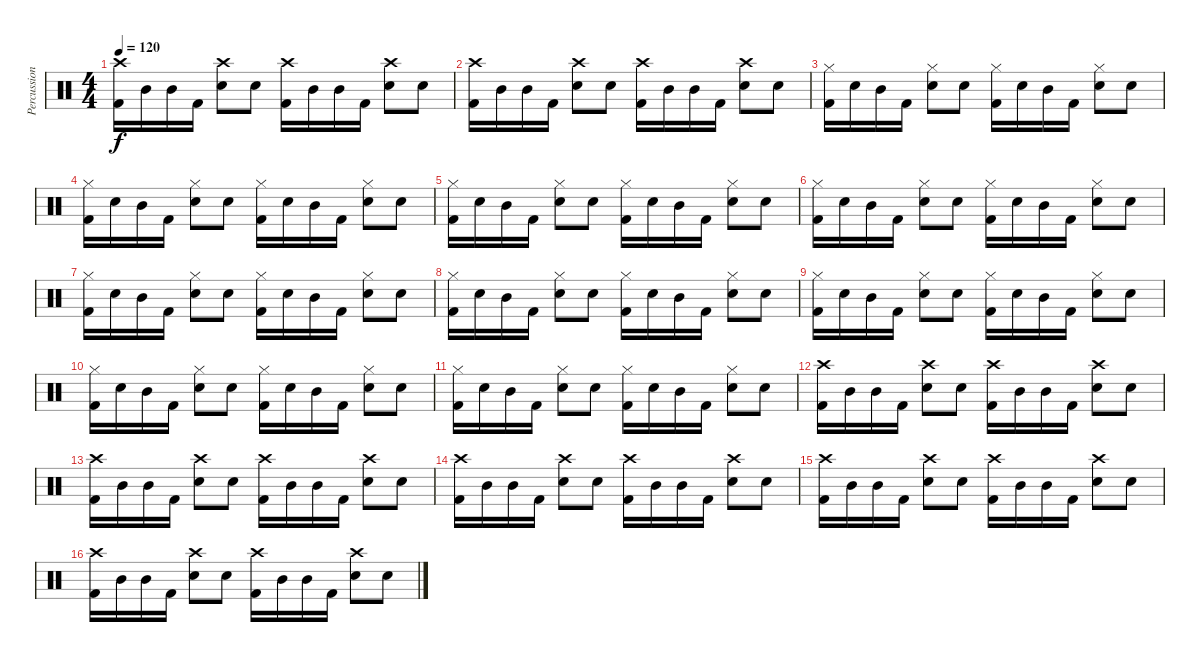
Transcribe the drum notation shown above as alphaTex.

\track ("Percussions" "Percussion") {instrument percussion}
\staff {score}
\articulation defaults
\ts (4 4)
\tempo 120
\clef neutral
\ks c
("Kick (hit) 2" "Crash high (hit)").16{dy f} "Mid Tom (hit)".16 "Mid Tom (hit)".16 "Kick (hit) 2".16 ("Electric Snare (hit)" "Crash high (hit)").8 "Electric Snare (hit)".8 ("Kick (hit) 2" "Crash high (hit)").16 "Mid Tom (hit)".16 "Mid Tom (hit)".16 "Kick (hit) 2".16 ("Electric Snare (hit)" "Crash high (hit)").8 "Electric Snare (hit)".8 |
("Kick (hit) 2" "Crash high (hit)").16 "Mid Tom (hit)".16 "Mid Tom (hit)".16 "Kick (hit) 2".16 ("Electric Snare (hit)" "Crash high (hit)").8 "Electric Snare (hit)".8 ("Kick (hit) 2" "Crash high (hit)").16 "Mid Tom (hit)".16 "Mid Tom (hit)".16 "Kick (hit) 2".16 ("Electric Snare (hit)" "Crash high (hit)").8 "Electric Snare (hit)".8 |
("Kick (hit) 2" "Hi-Hat (closed)").16 "Electric Snare (hit)".16 "Mid Tom (hit)".16 "Kick (hit) 2".16 ("Electric Snare (hit)" "Hi-Hat (closed)").8 "Electric Snare (hit)".8 ("Kick (hit) 2" "Hi-Hat (closed)").16 "Electric Snare (hit)".16 "Mid Tom (hit)".16 "Kick (hit) 2".16 ("Electric Snare (hit)" "Hi-Hat (closed)").8 "Electric Snare (hit)".8 |
("Kick (hit) 2" "Hi-Hat (closed)").16 "Electric Snare (hit)".16 "Mid Tom (hit)".16 "Kick (hit) 2".16 ("Electric Snare (hit)" "Hi-Hat (closed)").8 "Electric Snare (hit)".8 ("Kick (hit) 2" "Hi-Hat (closed)").16 "Electric Snare (hit)".16 "Mid Tom (hit)".16 "Kick (hit) 2".16 ("Electric Snare (hit)" "Hi-Hat (closed)").8 "Electric Snare (hit)".8 |
("Kick (hit) 2" "Hi-Hat (closed)").16 "Electric Snare (hit)".16 "Mid Tom (hit)".16 "Kick (hit) 2".16 ("Electric Snare (hit)" "Hi-Hat (closed)").8 "Electric Snare (hit)".8 ("Kick (hit) 2" "Hi-Hat (closed)").16 "Electric Snare (hit)".16 "Mid Tom (hit)".16 "Kick (hit) 2".16 ("Electric Snare (hit)" "Hi-Hat (closed)").8 "Electric Snare (hit)".8 |
("Kick (hit) 2" "Hi-Hat (closed)").16 "Electric Snare (hit)".16 "Mid Tom (hit)".16 "Kick (hit) 2".16 ("Electric Snare (hit)" "Hi-Hat (closed)").8 "Electric Snare (hit)".8 ("Kick (hit) 2" "Hi-Hat (closed)").16 "Electric Snare (hit)".16 "Mid Tom (hit)".16 "Kick (hit) 2".16 ("Electric Snare (hit)" "Hi-Hat (closed)").8 "Electric Snare (hit)".8 |
("Kick (hit) 2" "Hi-Hat (closed)").16 "Electric Snare (hit)".16 "Mid Tom (hit)".16 "Kick (hit) 2".16 ("Electric Snare (hit)" "Hi-Hat (closed)").8 "Electric Snare (hit)".8 ("Kick (hit) 2" "Hi-Hat (closed)").16 "Electric Snare (hit)".16 "Mid Tom (hit)".16 "Kick (hit) 2".16 ("Electric Snare (hit)" "Hi-Hat (closed)").8 "Electric Snare (hit)".8 |
("Kick (hit) 2" "Hi-Hat (closed)").16 "Electric Snare (hit)".16 "Mid Tom (hit)".16 "Kick (hit) 2".16 ("Electric Snare (hit)" "Hi-Hat (closed)").8 "Electric Snare (hit)".8 ("Kick (hit) 2" "Hi-Hat (closed)").16 "Electric Snare (hit)".16 "Mid Tom (hit)".16 "Kick (hit) 2".16 ("Electric Snare (hit)" "Hi-Hat (closed)").8 "Electric Snare (hit)".8 |
("Kick (hit) 2" "Hi-Hat (closed)").16 "Electric Snare (hit)".16 "Mid Tom (hit)".16 "Kick (hit) 2".16 ("Electric Snare (hit)" "Hi-Hat (closed)").8 "Electric Snare (hit)".8 ("Kick (hit) 2" "Hi-Hat (closed)").16 "Electric Snare (hit)".16 "Mid Tom (hit)".16 "Kick (hit) 2".16 ("Electric Snare (hit)" "Hi-Hat (closed)").8 "Electric Snare (hit)".8 |
("Kick (hit) 2" "Hi-Hat (closed)").16 "Electric Snare (hit)".16 "Mid Tom (hit)".16 "Kick (hit) 2".16 ("Electric Snare (hit)" "Hi-Hat (closed)").8 "Electric Snare (hit)".8 ("Kick (hit) 2" "Hi-Hat (closed)").16 "Electric Snare (hit)".16 "Mid Tom (hit)".16 "Kick (hit) 2".16 ("Electric Snare (hit)" "Hi-Hat (closed)").8 "Electric Snare (hit)".8 |
("Kick (hit) 2" "Hi-Hat (closed)").16 "Electric Snare (hit)".16 "Mid Tom (hit)".16 "Kick (hit) 2".16 ("Electric Snare (hit)" "Hi-Hat (closed)").8 "Electric Snare (hit)".8 ("Kick (hit) 2" "Hi-Hat (closed)").16 "Electric Snare (hit)".16 "Mid Tom (hit)".16 "Kick (hit) 2".16 ("Electric Snare (hit)" "Hi-Hat (closed)").8 "Electric Snare (hit)".8 |
("Kick (hit) 2" "Crash high (hit)").16 "Mid Tom (hit)".16 "Mid Tom (hit)".16 "Kick (hit) 2".16 ("Electric Snare (hit)" "Crash high (hit)").8 "Electric Snare (hit)".8 ("Kick (hit) 2" "Crash high (hit)").16 "Mid Tom (hit)".16 "Mid Tom (hit)".16 "Kick (hit) 2".16 ("Electric Snare (hit)" "Crash high (hit)").8 "Electric Snare (hit)".8 |
("Kick (hit) 2" "Crash high (hit)").16 "Mid Tom (hit)".16 "Mid Tom (hit)".16 "Kick (hit) 2".16 ("Electric Snare (hit)" "Crash high (hit)").8 "Electric Snare (hit)".8 ("Kick (hit) 2" "Crash high (hit)").16 "Mid Tom (hit)".16 "Mid Tom (hit)".16 "Kick (hit) 2".16 ("Electric Snare (hit)" "Crash high (hit)").8 "Electric Snare (hit)".8 |
("Kick (hit) 2" "Crash high (hit)").16 "Mid Tom (hit)".16 "Mid Tom (hit)".16 "Kick (hit) 2".16 ("Electric Snare (hit)" "Crash high (hit)").8 "Electric Snare (hit)".8 ("Kick (hit) 2" "Crash high (hit)").16 "Mid Tom (hit)".16 "Mid Tom (hit)".16 "Kick (hit) 2".16 ("Electric Snare (hit)" "Crash high (hit)").8 "Electric Snare (hit)".8 |
("Kick (hit) 2" "Crash high (hit)").16 "Mid Tom (hit)".16 "Mid Tom (hit)".16 "Kick (hit) 2".16 ("Electric Snare (hit)" "Crash high (hit)").8 "Electric Snare (hit)".8 ("Kick (hit) 2" "Crash high (hit)").16 "Mid Tom (hit)".16 "Mid Tom (hit)".16 "Kick (hit) 2".16 ("Electric Snare (hit)" "Crash high (hit)").8 "Electric Snare (hit)".8 |
("Kick (hit) 2" "Crash high (hit)").16 "Mid Tom (hit)".16 "Mid Tom (hit)".16 "Kick (hit) 2".16 ("Electric Snare (hit)" "Crash high (hit)").8 "Electric Snare (hit)".8 ("Kick (hit) 2" "Crash high (hit)").16 "Mid Tom (hit)".16 "Mid Tom (hit)".16 "Kick (hit) 2".16 ("Electric Snare (hit)" "Crash high (hit)").8 "Electric Snare (hit)".8
